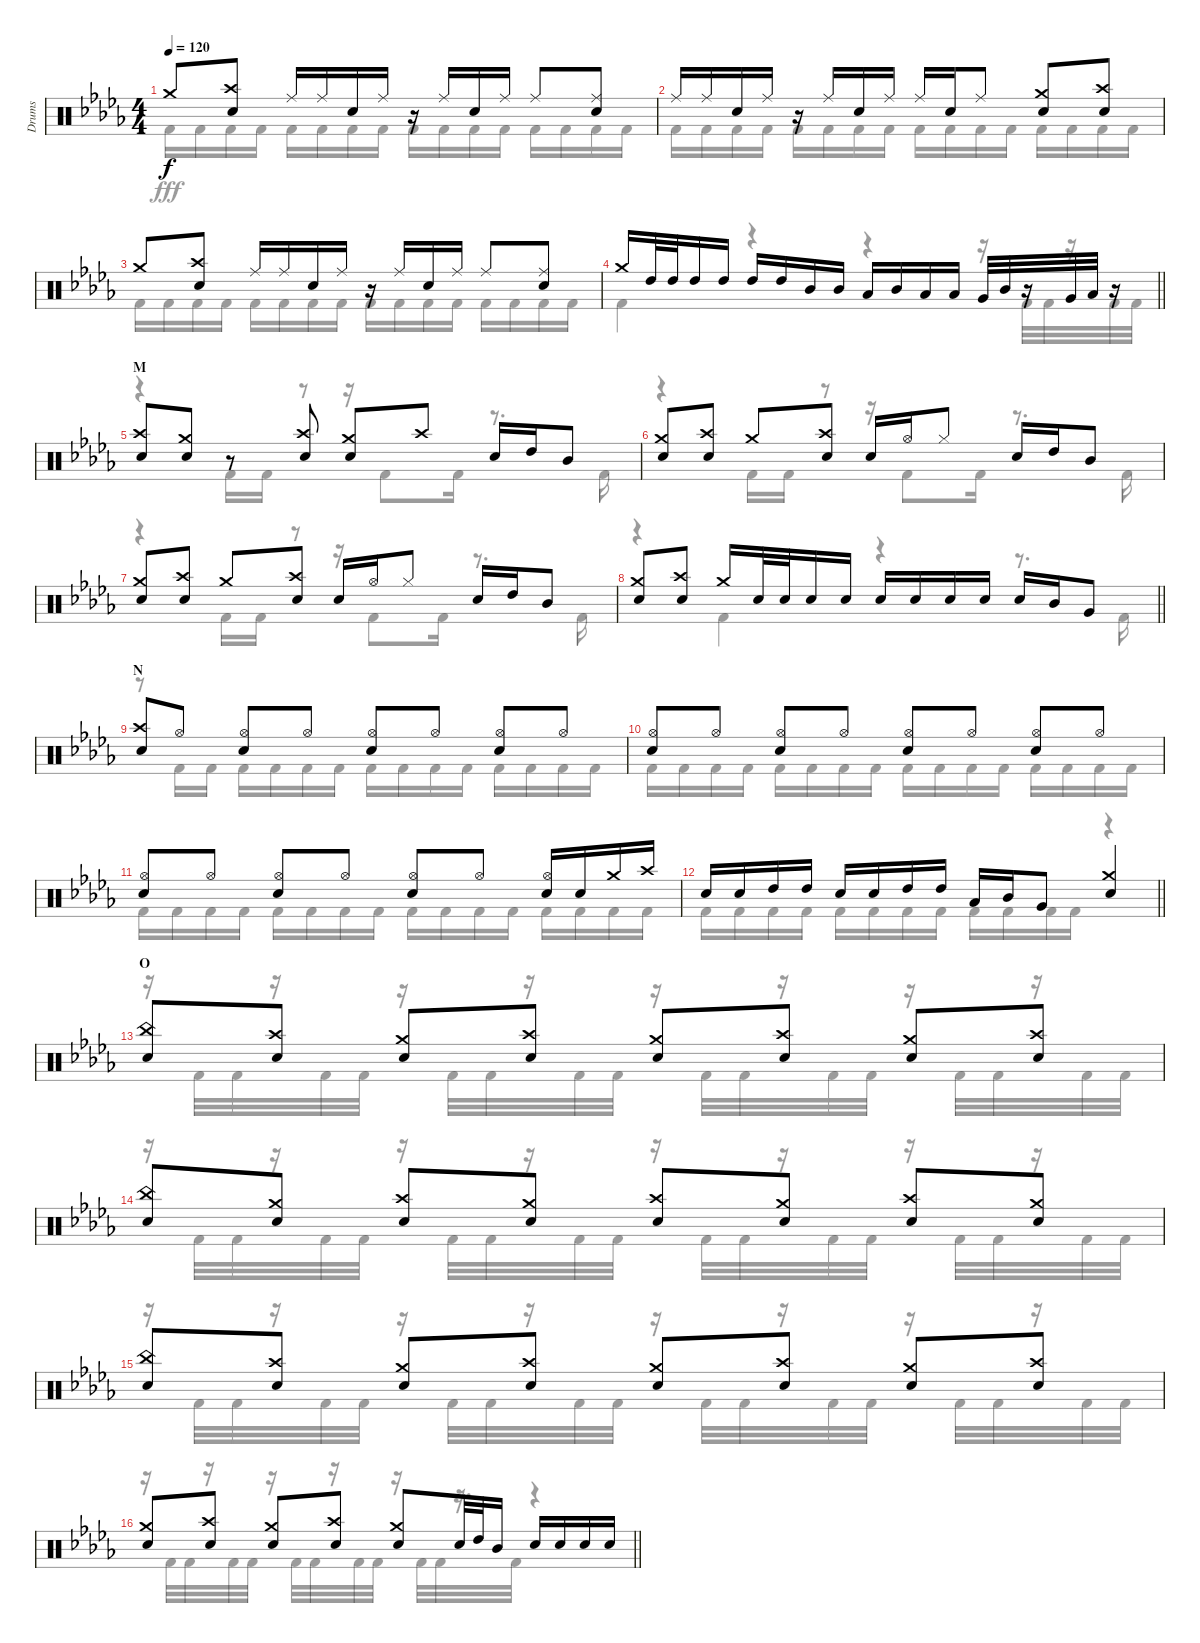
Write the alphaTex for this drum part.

\track ("Drums" "Drums") {instrument percussion}
\staff {score}
\articulation defaults
\voice
\ts (4 4)
\tempo 120
\clef neutral
\ks db "Crash medium (hit)".8{dy f}
("Crash high (hit)" "Snare (hit) 2").8 "Ride (middle)".16 "Ride (middle)".16 "Snare (hit) 2".16 "Ride (middle)".16 r.16 "Ride (middle)".16 "Snare (hit) 2".16 "Ride (middle)".16 "Ride (middle)".8 ("Ride (middle)" "Snare (hit) 2").8 |
"Ride (middle)".16 "Ride (middle)".16 "Snare (hit) 2".16 "Ride (middle)".16 r.16 "Ride (middle)".16 "Snare (hit) 2".16 "Ride (middle)".16 "Ride (middle)".16 "Snare (hit) 2".16 "Ride (middle)".8 ("Crash medium (hit)" "Snare (hit) 2").8 ("Crash high (hit)" "Snare (hit) 2").8 |
"Crash medium (hit)".8 ("Crash high (hit)" "Snare (hit) 2").8 "Ride (middle)".16 "Ride (middle)".16 "Snare (hit) 2".16 "Ride (middle)".16 r.16 "Ride (middle)".16 "Snare (hit) 2".16 "Ride (middle)".16 "Ride (middle)".8 ("Ride (middle)" "Snare (hit) 2").8 |
\barLineRight lightlight "Crash medium (hit)".16 "High Tom (hit)".32 "High Tom (hit)".32 "High Tom (hit)".16 "High Tom (hit)".16 "High Tom (hit)".16 "High Tom (hit)".16 "Mid Tom (hit)".16 "Mid Tom (hit)".16 "Low Tom (hit)".16 "Mid Tom (hit)".16 "Low Tom (hit)".16 "Low Tom (hit)".16 "Very Low Tom (hit)".32 "Mid Tom (hit)".32
r.16 "Very Low Tom (hit)".32 "Low Tom (hit)".32 r.16 |
\section ("" "M")
("Crash high (hit)" "Snare (hit) 2").8 ("Crash medium (hit)" "Snare (hit) 2").8 r.8 ("Crash high (hit)" "Snare (hit) 2").8 ("Crash medium (hit)" "Snare (hit) 2").8 "Crash high (hit)".8 "Snare (hit) 2".16 "High Tom (hit)".16 "Mid Tom (hit)".8 |
("Crash medium (hit)" "Snare (hit) 2").8 ("Crash high (hit)" "Snare (hit) 2").8 "Crash medium (hit)".8 ("Crash high (hit)" "Snare (hit) 2").8 "Snare (hit) 2".16 "Hi-Hat (open)".16 "Hi-Hat (closed)".8 "Snare (hit) 2".16 "High Tom (hit)".16 "Mid Tom (hit)".8 |
("Crash medium (hit)" "Snare (hit) 2").8 ("Crash high (hit)" "Snare (hit) 2").8 "Crash medium (hit)".8 ("Crash high (hit)" "Snare (hit) 2").8 "Snare (hit) 2".16 "Hi-Hat (open)".16 "Hi-Hat (closed)".8 "Snare (hit) 2".16 "High Tom (hit)".16 "Mid Tom (hit)".8 |
\barLineRight lightlight
("Crash medium (hit)" "Snare (hit) 2").8 ("Crash high (hit)" "Snare (hit) 2").8 "Crash medium (hit)".16 "Snare (hit) 2".32 "Snare (hit) 2".32 "Snare (hit) 2".16 "Snare (hit) 2".16 "Snare (hit) 2".16 "Snare (hit) 2".16 "Snare (hit) 2".16 "Snare (hit) 2".16 "Snare (hit) 2".16 "Mid Tom (hit)".16 "Very Low Tom (hit)".8 |
\section ("" "N")
("Crash high (hit)" "Snare (hit) 2").8 "Hi-Hat (open)".8 ("Hi-Hat (open)" "Snare (hit) 2").8 "Hi-Hat (open)".8 ("Hi-Hat (open)" "Snare (hit) 2").8 "Hi-Hat (open)".8 ("Hi-Hat (open)" "Snare (hit) 2").8 "Hi-Hat (open)".8 |
("Hi-Hat (open)" "Snare (hit) 2").8 "Hi-Hat (open)".8 ("Hi-Hat (open)" "Snare (hit) 2").8 "Hi-Hat (open)".8 ("Hi-Hat (open)" "Snare (hit) 2").8 "Hi-Hat (open)".8 ("Hi-Hat (open)" "Snare (hit) 2").8 "Hi-Hat (open)".8 |
("Hi-Hat (open)" "Snare (hit) 2").8 "Hi-Hat (open)".8 ("Hi-Hat (open)" "Snare (hit) 2").8 "Hi-Hat (open)".8 ("Hi-Hat (open)" "Snare (hit) 2").8 "Hi-Hat (open)".8 ("Hi-Hat (open)" "Snare (hit) 2").16 "Snare (hit) 2".16 "Crash medium (hit)".16 "Crash high (hit)".16 |
\barLineRight lightlight "Snare (hit) 2".16 "Snare (hit) 2".16 "High Tom (hit)".16 "High Tom (hit)".16 "Snare (hit) 2".16 "Snare (hit) 2".16 "High Tom (hit)".16 "High Tom (hit)".16 "Low Tom (hit)".16 "Mid Tom (hit)".16 "Very Low Tom (hit)".8
("Crash medium (hit)" "Snare (hit) 2").4 |
\section ("" "O")
("China (hit)" "Snare (hit) 2").8 ("Crash high (hit)" "Snare (hit) 2").8 ("Crash medium (hit)" "Snare (hit) 2").8 ("Crash high (hit)" "Snare (hit) 2").8 ("Crash medium (hit)" "Snare (hit) 2").8 ("Crash high (hit)" "Snare (hit) 2").8 ("Crash medium (hit)" "Snare (hit) 2").8 ("Crash high (hit)" "Snare (hit) 2").8 |
("China (hit)" "Snare (hit) 2").8 ("Crash medium (hit)" "Snare (hit) 2").8 ("Crash high (hit)" "Snare (hit) 2").8 ("Crash medium (hit)" "Snare (hit) 2").8 ("Crash high (hit)" "Snare (hit) 2").8 ("Crash medium (hit)" "Snare (hit) 2").8 ("Crash high (hit)" "Snare (hit) 2").8 ("Crash medium (hit)" "Snare (hit) 2").8 |
("China (hit)" "Snare (hit) 2").8 ("Crash high (hit)" "Snare (hit) 2").8 ("Crash medium (hit)" "Snare (hit) 2").8 ("Crash high (hit)" "Snare (hit) 2").8 ("Crash medium (hit)" "Snare (hit) 2").8 ("Crash high (hit)" "Snare (hit) 2").8 ("Crash medium (hit)" "Snare (hit) 2").8 ("Crash high (hit)" "Snare (hit) 2").8 |
\barLineRight lightlight
("Crash medium (hit)" "Snare (hit) 2").8 ("Crash high (hit)" "Snare (hit) 2").8 ("Crash medium (hit)" "Snare (hit) 2").8 ("Crash high (hit)" "Snare (hit) 2").8 ("Crash medium (hit)" "Snare (hit) 2").8 "Snare (hit) 2".32 "High Tom (hit)".32 "Mid Tom (hit)".16 "Snare (hit) 2".16 "Snare (hit) 2".16 "Snare (hit) 2".16 "Snare (hit) 2".16
\voice
\clef neutral
\ottava regular
\simile none
\ks db "Kick (hit) 2".16{dy fff} "Kick (hit) 2".16 "Kick (hit) 2".16 "Kick (hit) 2".16 "Kick (hit) 2".16 "Kick (hit) 2".16 "Kick (hit) 2".16 "Kick (hit) 2".16 "Kick (hit) 2".16 "Kick (hit) 2".16 "Kick (hit) 2".16 "Kick (hit) 2".16 "Kick (hit) 2".16 "Kick (hit) 2".16 "Kick (hit) 2".16 "Kick (hit) 2".16
|
"Kick (hit) 2".16 "Kick (hit) 2".16 "Kick (hit) 2".16 "Kick (hit) 2".16 "Kick (hit) 2".16 "Kick (hit) 2".16 "Kick (hit) 2".16 "Kick (hit) 2".16 "Kick (hit) 2".16 "Kick (hit) 2".16 "Kick (hit) 2".16 "Kick (hit) 2".16 "Kick (hit) 2".16 "Kick (hit) 2".16 "Kick (hit) 2".16 "Kick (hit) 2".16 |
"Kick (hit) 2".16 "Kick (hit) 2".16 "Kick (hit) 2".16 "Kick (hit) 2".16 "Kick (hit) 2".16 "Kick (hit) 2".16 "Kick (hit) 2".16 "Kick (hit) 2".16 "Kick (hit) 2".16 "Kick (hit) 2".16 "Kick (hit) 2".16 "Kick (hit) 2".16 "Kick (hit) 2".16 "Kick (hit) 2".16 "Kick (hit) 2".16 "Kick (hit) 2".16 |
\barLineRight lightlight "Kick (hit) 2".4
r.4 r.4 r.16 "Kick (hit) 2".32 "Kick (hit) 2".32 r.16 "Kick (hit) 2".32 "Kick (hit) 2".32 |
r.4 "Kick (hit) 2".16 "Kick (hit) 2".16 r.8 r.16 "Kick (hit) 2".8 "Kick (hit) 2".16 r.8{d} "Kick (hit) 2".16 |
r.4 "Kick (hit) 2".16 "Kick (hit) 2".16 r.8 r.16 "Kick (hit) 2".8 "Kick (hit) 2".16 r.8{d} "Kick (hit) 2".16 |
r.4 "Kick (hit) 2".16 "Kick (hit) 2".16 r.8 r.16 "Kick (hit) 2".8 "Kick (hit) 2".16 r.8{d} "Kick (hit) 2".16 |
\barLineRight lightlight
r.4 "Kick (hit) 2".4 r.4 r.8{d} "Kick (hit) 2".16 |
r.8 "Kick (hit) 2".16 "Kick (hit) 2".16 "Kick (hit) 2".16 "Kick (hit) 2".16 "Kick (hit) 2".16 "Kick (hit) 2".16 "Kick (hit) 2".16 "Kick (hit) 2".16 "Kick (hit) 2".16 "Kick (hit) 2".16 "Kick (hit) 2".16 "Kick (hit) 2".16 "Kick (hit) 2".16 "Kick (hit) 2".16 |
"Kick (hit) 2".16 "Kick (hit) 2".16 "Kick (hit) 2".16 "Kick (hit) 2".16 "Kick (hit) 2".16 "Kick (hit) 2".16 "Kick (hit) 2".16 "Kick (hit) 2".16 "Kick (hit) 2".16 "Kick (hit) 2".16 "Kick (hit) 2".16 "Kick (hit) 2".16 "Kick (hit) 2".16 "Kick (hit) 2".16 "Kick (hit) 2".16 "Kick (hit) 2".16 |
"Kick (hit) 2".16 "Kick (hit) 2".16 "Kick (hit) 2".16 "Kick (hit) 2".16 "Kick (hit) 2".16 "Kick (hit) 2".16 "Kick (hit) 2".16 "Kick (hit) 2".16 "Kick (hit) 2".16 "Kick (hit) 2".16 "Kick (hit) 2".16 "Kick (hit) 2".16 "Kick (hit) 2".16 "Kick (hit) 2".16 "Kick (hit) 2".16 "Kick (hit) 2".16 |
\barLineRight lightlight "Kick (hit) 2".16 "Kick (hit) 2".16 "Kick (hit) 2".16 "Kick (hit) 2".16 "Kick (hit) 2".16 "Kick (hit) 2".16 "Kick (hit) 2".16 "Kick (hit) 2".16 "Kick (hit) 2".16 "Kick (hit) 2".16 "Kick (hit) 2".16 "Kick (hit) 2".16
r.4 |
r.16 "Kick (hit) 2".32 "Kick (hit) 2".32 r.16 "Kick (hit) 2".32 "Kick (hit) 2".32 r.16 "Kick (hit) 2".32 "Kick (hit) 2".32 r.16 "Kick (hit) 2".32 "Kick (hit) 2".32 r.16 "Kick (hit) 2".32 "Kick (hit) 2".32 r.16 "Kick (hit) 2".32 "Kick (hit) 2".32 r.16 "Kick (hit) 2".32 "Kick (hit) 2".32 r.16 "Kick (hit) 2".32 "Kick (hit) 2".32 |
r.16 "Kick (hit) 2".32 "Kick (hit) 2".32 r.16 "Kick (hit) 2".32 "Kick (hit) 2".32 r.16 "Kick (hit) 2".32 "Kick (hit) 2".32 r.16 "Kick (hit) 2".32 "Kick (hit) 2".32 r.16 "Kick (hit) 2".32 "Kick (hit) 2".32 r.16 "Kick (hit) 2".32 "Kick (hit) 2".32 r.16 "Kick (hit) 2".32 "Kick (hit) 2".32 r.16 "Kick (hit) 2".32 "Kick (hit) 2".32 |
r.16 "Kick (hit) 2".32 "Kick (hit) 2".32 r.16 "Kick (hit) 2".32 "Kick (hit) 2".32 r.16 "Kick (hit) 2".32 "Kick (hit) 2".32 r.16 "Kick (hit) 2".32 "Kick (hit) 2".32 r.16 "Kick (hit) 2".32 "Kick (hit) 2".32 r.16 "Kick (hit) 2".32 "Kick (hit) 2".32 r.16 "Kick (hit) 2".32 "Kick (hit) 2".32 r.16 "Kick (hit) 2".32 "Kick (hit) 2".32 |
\barLineRight lightlight
r.16 "Kick (hit) 2".32 "Kick (hit) 2".32 r.16 "Kick (hit) 2".32 "Kick (hit) 2".32 r.16 "Kick (hit) 2".32 "Kick (hit) 2".32 r.16 "Kick (hit) 2".32 "Kick (hit) 2".32 r.16 "Kick (hit) 2".32 "Kick (hit) 2".32 r.16{d} "Kick (hit) 2".32 r.4
